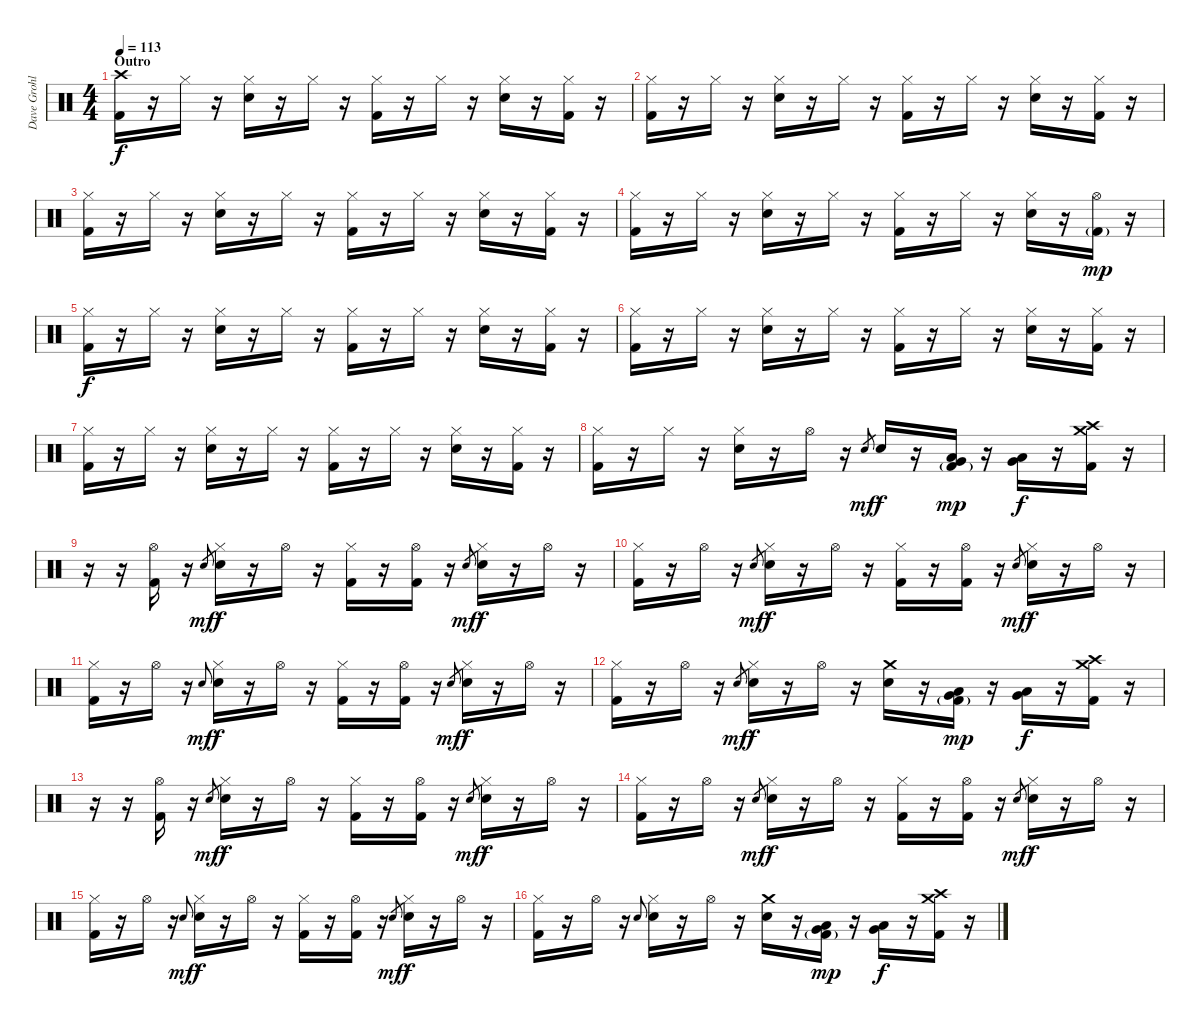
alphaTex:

\track ("Dave Grohl" "Dave Grohl") {instrument percussion}
\staff {score}
\articulation defaults
\ts (4 4)
\section ("" "Outro")
\tempo 113
\clef neutral
\ks c
("Crash high (hit)" "Kick (hit) 2").16{dy f} r.16 "Hi-Hat (closed)".16 r.16 ("Hi-Hat (closed)" "Electric Snare (hit)").16 r.16 "Hi-Hat (closed)".16 r.16 ("Hi-Hat (closed)" "Kick (hit) 2").16 r.16 "Hi-Hat (closed)".16 r.16 ("Hi-Hat (closed)" "Electric Snare (hit)").16 r.16 ("Hi-Hat (closed)" "Kick (hit) 2").16 r.16 |
("Hi-Hat (closed)" "Kick (hit) 2").16 r.16 "Hi-Hat (closed)".16 r.16 ("Hi-Hat (closed)" "Electric Snare (hit)").16 r.16 "Hi-Hat (closed)".16 r.16 ("Hi-Hat (closed)" "Kick (hit) 2").16 r.16 "Hi-Hat (closed)".16 r.16 ("Hi-Hat (closed)" "Electric Snare (hit)").16 r.16 ("Hi-Hat (closed)" "Kick (hit) 2").16 r.16 |
("Hi-Hat (closed)" "Kick (hit) 2").16 r.16 "Hi-Hat (closed)".16 r.16 ("Hi-Hat (closed)" "Electric Snare (hit)").16 r.16 "Hi-Hat (closed)".16 r.16 ("Hi-Hat (closed)" "Kick (hit) 2").16 r.16 "Hi-Hat (closed)".16 r.16 ("Hi-Hat (closed)" "Electric Snare (hit)").16 r.16 ("Hi-Hat (closed)" "Kick (hit) 2").16 r.16 |
("Hi-Hat (closed)" "Kick (hit) 2").16 r.16 "Hi-Hat (closed)".16 r.16 ("Hi-Hat (closed)" "Electric Snare (hit)").16 r.16 "Hi-Hat (closed)".16 r.16 ("Hi-Hat (closed)" "Kick (hit) 2").16 r.16 "Hi-Hat (closed)".16 r.16 ("Hi-Hat (closed)" "Electric Snare (hit)").16 r.16 ("Hi-Hat (open)" "Kick (hit) 2"{g}).16{dy mp} r.16 |
("Hi-Hat (closed)" "Kick (hit) 2").16{dy f} r.16 "Hi-Hat (closed)".16 r.16 ("Hi-Hat (closed)" "Electric Snare (hit)").16 r.16 "Hi-Hat (closed)".16 r.16 ("Hi-Hat (closed)" "Kick (hit) 2").16 r.16 "Hi-Hat (closed)".16 r.16 ("Hi-Hat (closed)" "Electric Snare (hit)").16 r.16 ("Hi-Hat (closed)" "Kick (hit) 2").16 r.16 |
("Hi-Hat (closed)" "Kick (hit) 2").16 r.16 "Hi-Hat (closed)".16 r.16 ("Hi-Hat (closed)" "Electric Snare (hit)").16 r.16 "Hi-Hat (closed)".16 r.16 ("Hi-Hat (closed)" "Kick (hit) 2").16 r.16 "Hi-Hat (closed)".16 r.16 ("Hi-Hat (closed)" "Electric Snare (hit)").16 r.16 ("Hi-Hat (closed)" "Kick (hit) 2").16 r.16 |
("Hi-Hat (closed)" "Kick (hit) 2").16 r.16 "Hi-Hat (closed)".16 r.16 ("Hi-Hat (closed)" "Electric Snare (hit)").16 r.16 "Hi-Hat (closed)".16 r.16 ("Hi-Hat (closed)" "Kick (hit) 2").16 r.16 "Hi-Hat (closed)".16 r.16 ("Hi-Hat (closed)" "Electric Snare (hit)").16 r.16 ("Hi-Hat (closed)" "Kick (hit) 2").16 r.16 |
("Hi-Hat (closed)" "Kick (hit) 2").16 r.16 "Hi-Hat (closed)".16 r.16 ("Hi-Hat (closed)" "Electric Snare (hit)").16 r.16 "Hi-Hat (open)".16 r.16 "Electric Snare (hit)".8{gr dy mf} "Electric Snare (hit)".16{dy f} r.16 ("Very Low Tom (hit)" "Low Tom (hit)" "Kick (hit) 2"{g}).16{dy mp} r.16 ("Very Low Tom (hit)" "Low Tom (hit)").16{dy f} r.16 ("Crash high (hit)" "Crash medium (hit)" "Kick (hit) 2").16 r.16 |
r.16 r.16 ("Hi-Hat (open)" "Kick (hit) 2").16 r.16 "Electric Snare (hit)".8{gr dy mf} ("Hi-Hat (closed)" "Electric Snare (hit)").16{dy f} r.16 "Hi-Hat (open)".16 r.16 ("Hi-Hat (closed)" "Kick (hit) 2").16 r.16 ("Hi-Hat (open)" "Kick (hit) 2").16 r.16 "Electric Snare (hit)".8{gr dy mf} ("Hi-Hat (closed)" "Electric Snare (hit)").16{dy f} r.16 "Hi-Hat (open)".16 r.16 |
("Hi-Hat (closed)" "Kick (hit) 2").16 r.16 "Hi-Hat (open)".16 r.16 "Electric Snare (hit)".8{gr dy mf} ("Hi-Hat (closed)" "Electric Snare (hit)").16{dy f} r.16 "Hi-Hat (open)".16 r.16 ("Hi-Hat (closed)" "Kick (hit) 2").16 r.16 ("Hi-Hat (open)" "Kick (hit) 2").16 r.16 "Electric Snare (hit)".8{gr dy mf} ("Hi-Hat (closed)" "Electric Snare (hit)").16{dy f} r.16 "Hi-Hat (open)".16 r.16 |
("Hi-Hat (closed)" "Kick (hit) 2").16 r.16 "Hi-Hat (open)".16 r.16 "Electric Snare (hit)".8{gr onbeat dy mf} ("Hi-Hat (closed)" "Electric Snare (hit)").16{dy f} r.16 "Hi-Hat (open)".16 r.16 ("Hi-Hat (closed)" "Kick (hit) 2").16 r.16 ("Hi-Hat (open)" "Kick (hit) 2").16 r.16 "Electric Snare (hit)".8{gr dy mf} ("Hi-Hat (closed)" "Electric Snare (hit)").16{dy f} r.16 "Hi-Hat (open)".16 r.16 |
("Hi-Hat (closed)" "Kick (hit) 2").16 r.16 "Hi-Hat (open)".16 r.16 "Electric Snare (hit)".8{gr dy mf} ("Hi-Hat (closed)" "Electric Snare (hit)").16{dy f} r.16 "Hi-Hat (open)".16 r.16 ("Crash medium (hit)" "Electric Snare (hit)").16 r.16 ("Very Low Tom (hit)" "Low Tom (hit)" "Kick (hit) 2"{g}).16{dy mp} r.16 ("Very Low Tom (hit)" "Low Tom (hit)").16{dy f} r.16 ("Crash high (hit)" "Crash medium (hit)" "Kick (hit) 2").16 r.16 |
r.16 r.16 ("Hi-Hat (open)" "Kick (hit) 2").16 r.16 "Electric Snare (hit)".8{gr dy mf} ("Hi-Hat (closed)" "Electric Snare (hit)").16{dy f} r.16 "Hi-Hat (open)".16 r.16 ("Hi-Hat (closed)" "Kick (hit) 2").16 r.16 ("Hi-Hat (open)" "Kick (hit) 2").16 r.16 "Electric Snare (hit)".8{gr dy mf} ("Hi-Hat (closed)" "Electric Snare (hit)").16{dy f} r.16 "Hi-Hat (open)".16 r.16 |
("Hi-Hat (closed)" "Kick (hit) 2").16 r.16 "Hi-Hat (open)".16 r.16 "Electric Snare (hit)".8{gr dy mf} ("Hi-Hat (closed)" "Electric Snare (hit)").16{dy f} r.16 "Hi-Hat (open)".16 r.16 ("Hi-Hat (closed)" "Kick (hit) 2").16 r.16 ("Hi-Hat (open)" "Kick (hit) 2").16 r.16 "Electric Snare (hit)".8{gr dy mf} ("Hi-Hat (closed)" "Electric Snare (hit)").16{dy f} r.16 "Hi-Hat (open)".16 r.16 |
("Hi-Hat (closed)" "Kick (hit) 2").16 r.16 "Hi-Hat (open)".16 r.16 "Electric Snare (hit)".8{gr onbeat dy mf} ("Hi-Hat (closed)" "Electric Snare (hit)").16{dy f} r.16 "Hi-Hat (open)".16 r.16 ("Hi-Hat (closed)" "Kick (hit) 2").16 r.16 ("Hi-Hat (open)" "Kick (hit) 2").16 r.16 "Electric Snare (hit)".8{gr dy mf} ("Hi-Hat (closed)" "Electric Snare (hit)").16{dy f} r.16 "Hi-Hat (open)".16 r.16 |
("Hi-Hat (closed)" "Kick (hit) 2").16 r.16 "Hi-Hat (open)".16 r.16 "Electric Snare (hit)".8{gr onbeat} ("Hi-Hat (closed)" "Electric Snare (hit)").16 r.16 "Hi-Hat (open)".16 r.16 ("Crash medium (hit)" "Electric Snare (hit)").16 r.16 ("Very Low Tom (hit)" "Low Tom (hit)" "Kick (hit) 2"{g}).16{dy mp} r.16 ("Very Low Tom (hit)" "Low Tom (hit)").16{dy f} r.16 ("Crash high (hit)" "Crash medium (hit)" "Kick (hit) 2").16 r.16
